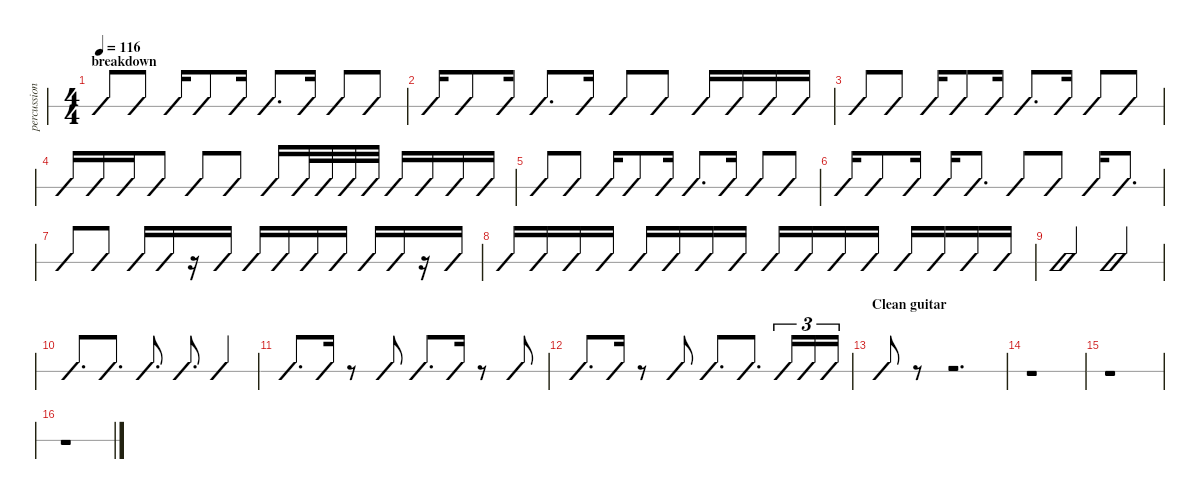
\defaultSystemsLayout 4
\hideDynamics
\bracketExtendMode nobrackets
\track ("Drums" "percussion") {instrument percussion}
\staff {slash}
\articulation defaults
\voice
\ts (4 4)
\section ("" "breakdown")
\tempo 116
\clef neutral
\ks c
("China (hit)" "Kick (hit) 2").8{dy f} "Kick (hit) 2".8 ("China (hit)" "Snare (hit) 2").16 "Kick (hit) 2".8 "Kick (hit) 2".16 "China (hit)".8{d} "Kick (hit) 2".16 ("China (hit)" "Snare (hit) 2").8 "Kick (hit) 2".8 |
"China (hit)".16 "Kick (hit) 2".8 "Kick (hit) 2".16 ("China (hit)" "Snare (hit) 2").8{d} "Kick (hit) 2".16 ("China (hit)" "Kick (hit) 2").8 "Kick (hit) 2".8 ("China (hit)" "Snare (hit) 2").16 "Kick (hit) 2".16 "Snare (hit) 2".16 "Snare (hit) 2".16 |
("China (hit)" "Kick (hit) 2").8 "Kick (hit) 2".8 ("China (hit)" "Snare (hit) 2").16 "Kick (hit) 2".8 "Kick (hit) 2".16 "China (hit)".8{d} "Kick (hit) 2".16 ("China (hit)" "Snare (hit) 2").8 "Kick (hit) 2".8 |
"Snare (hit) 2".16 "Very Low Tom (hit)".16 "Low Floor Tom (hit)".16 "Snare (hit) 2".8 ("Hi-Hat (open)" "Kick (hit) 2").8 ("Hi-Hat (open)" "Kick (hit) 2").8 "Very Low Tom (hit)".16 "Very Low Tom (hit)".32 "Very Low Tom (hit)".32 "Low Floor Tom (hit)".32 "Low Floor Tom (hit)".32 ("China (hit)" "Snare (hit) 2").16 "Kick (hit) 2".16 "Snare (hit) 2".16 "Snare (hit) 2".16 |
("China (hit)" "Kick (hit) 2").8 "Kick (hit) 2".8 ("China (hit)" "Snare (hit) 2").16 "Kick (hit) 2".8 "Kick (hit) 2".16 "China (hit)".8{d} "Kick (hit) 2".16 ("China (hit)" "Snare (hit) 2").8 "Kick (hit) 2".8 |
"China (hit)".16 "Kick (hit) 2".8 "Kick (hit) 2".16 ("China (hit)" "Snare (hit) 2").16 "Kick (hit) 2".8{d} ("China (hit)" "Kick (hit) 2").8 "Kick (hit) 2".8 ("China (hit)" "Snare (hit) 2").16 "Kick (hit) 2".8{d} |
("China (hit)" "Kick (hit) 2").8 "Kick (hit) 2".8 ("China (hit)" "Snare (hit) 2").16 "Kick (hit) 2".16 r.16 "Kick (hit) 2".16 "China (hit)".16 "Snare (hit) 2".16 "Kick (hit) 2".16 "Kick (hit) 2".16 ("China (hit)" "Snare (hit) 2").16 "Kick (hit) 2".16 r.16 "Kick (hit) 2".16 |
"Very Low Tom (hit)".16 "Very Low Tom (hit)".16 "Very Low Tom (hit)".16 "Very Low Tom (hit)".16 "Very Low Tom (hit)".16 "Kick (hit) 2".16 "Kick (hit) 2".16 "Low Floor Tom (hit)".16 "Kick (hit) 2".16 "Snare (hit) 2".16 "Kick (hit) 2".16 "Kick (hit) 2".16 "Very Low Tom (hit)".16 "Kick (hit) 2".16 "Low Floor Tom (hit)".16 "Kick (hit) 2".16 |
("China (hit)" "Kick (hit) 2").2 ("Crash medium (hit)" "Snare (hit) 2").2 |
("Crash medium (hit)" "Kick (hit) 2").8{d} ("Crash high (hit)" "Kick (hit) 2").8{d} ("Crash medium (hit)" "Kick (hit) 2").8{d} ("Crash high (hit)" "Kick (hit) 2").8{d} "Snare (hit) 2".4 |
("China (hit)" "Kick (hit) 2").8{d} "Kick (hit) 2".16 r.8 "Kick (hit) 2".8 ("China (hit)" "Kick (hit) 2" "Snare (hit) 2").8{d} "Kick (hit) 2".16 r.8 "Kick (hit) 2".8 |
("China (hit)" "Kick (hit) 2").8{d} "Kick (hit) 2".16 r.8 "Kick (hit) 2".8 ("China (hit)" "Kick (hit) 2" "Snare (hit) 2").8{d} ("Crash high (hit)" "Kick (hit) 2").8{d} ("Very Low Tom (hit)" "Kick (hit) 2").16{tu (3 2)} ("Low Floor Tom (hit)" "Kick (hit) 2").16{tu (3 2)} ("Low Floor Tom (hit)" "Kick (hit) 2").16{tu (3 2)} |
\section ("" "Clean guitar ")
("Low Floor Tom (hit)" "Kick (hit) 2").8 r.8 r.2{d} |
r.1 |
r.1 |
r.1
\voice
\clef neutral
\ottava regular
\simile none
\ks c
r.4{dy mf} r.4 r.4 r.4 |
r.4 r.4 r.4 r.4 |
r.4 r.4 r.4 r.4 |
r.4 r.4 r.4 r.4 |
r.4 r.4 r.4 r.4 |
r.4 r.4 r.4 r.4 |
r.4 r.4 r.4 r.4 |
r.4 r.4 r.4 r.4 |
r.4 r.4 r.4 r.4 |
r.4 r.4 r.4 r.4 |
r.4 r.4 r.4 r.4 |
r.4 r.4 r.4 r.4 |
r.4 r.4 r.4 r.4 |
r.4 r.4 r.4 r.4 |
r.4 r.4 r.4 r.4 |
r.4 r.4 r.4 r.4
